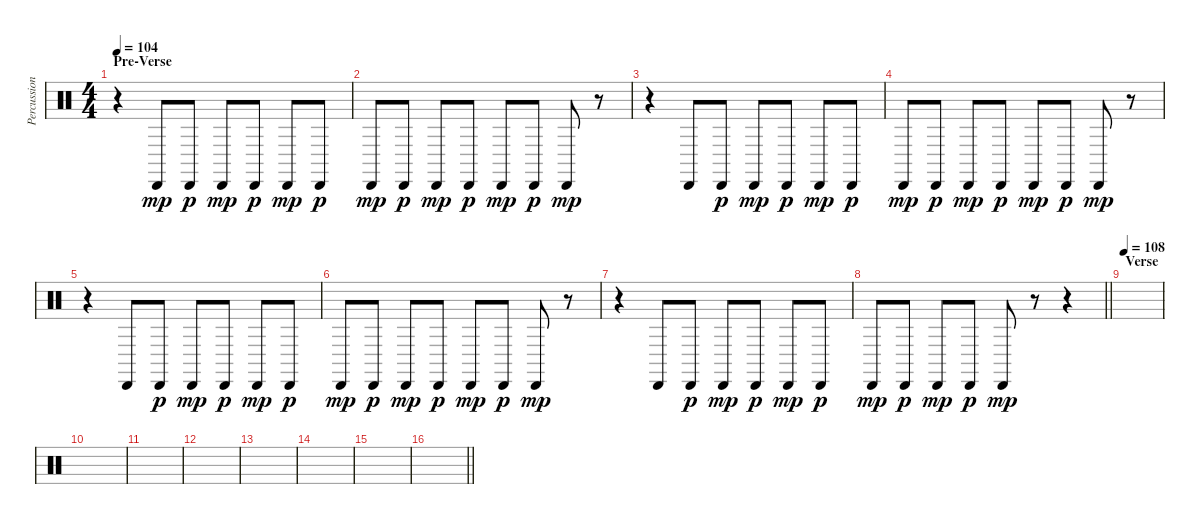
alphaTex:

\track ("Percussions" "Percussion") {instrument percussion}
\staff {score}
\articulation defaults
\ts (4 4)
\section ("" "Pre-Verse")
\tempo 104
\clef neutral
\ks c
r.4{dy mp} "Cabasa (hit)".8 "Cabasa (hit)".8{dy p} "Cabasa (hit)".8{dy mp} "Cabasa (hit)".8{dy p} "Cabasa (hit)".8{dy mp} "Cabasa (hit)".8{dy p} |
"Cabasa (hit)".8{dy mp} "Cabasa (hit)".8{dy p} "Cabasa (hit)".8{dy mp} "Cabasa (hit)".8{dy p} "Cabasa (hit)".8{dy mp} "Cabasa (hit)".8{dy p} "Cabasa (hit)".8{dy mp} r.8 |
r.4 "Cabasa (hit)".8 "Cabasa (hit)".8{dy p} "Cabasa (hit)".8{dy mp} "Cabasa (hit)".8{dy p} "Cabasa (hit)".8{dy mp} "Cabasa (hit)".8{dy p} |
"Cabasa (hit)".8{dy mp} "Cabasa (hit)".8{dy p} "Cabasa (hit)".8{dy mp} "Cabasa (hit)".8{dy p} "Cabasa (hit)".8{dy mp} "Cabasa (hit)".8{dy p} "Cabasa (hit)".8{dy mp} r.8 |
r.4 "Cabasa (hit)".8 "Cabasa (hit)".8{dy p} "Cabasa (hit)".8{dy mp} "Cabasa (hit)".8{dy p} "Cabasa (hit)".8{dy mp} "Cabasa (hit)".8{dy p} |
"Cabasa (hit)".8{dy mp} "Cabasa (hit)".8{dy p} "Cabasa (hit)".8{dy mp} "Cabasa (hit)".8{dy p} "Cabasa (hit)".8{dy mp} "Cabasa (hit)".8{dy p} "Cabasa (hit)".8{dy mp} r.8 |
r.4 "Cabasa (hit)".8 "Cabasa (hit)".8{dy p} "Cabasa (hit)".8{dy mp} "Cabasa (hit)".8{dy p} "Cabasa (hit)".8{dy mp} "Cabasa (hit)".8{dy p} |
\barLineRight lightlight "Cabasa (hit)".8{dy mp} "Cabasa (hit)".8{dy p} "Cabasa (hit)".8{dy mp} "Cabasa (hit)".8{dy p} "Cabasa (hit)".8{dy mp}
r.8 r.4 |
\section ("" "Verse")
\tempo 108
|
|
|
|
|
|
|
\barLineRight lightlight
